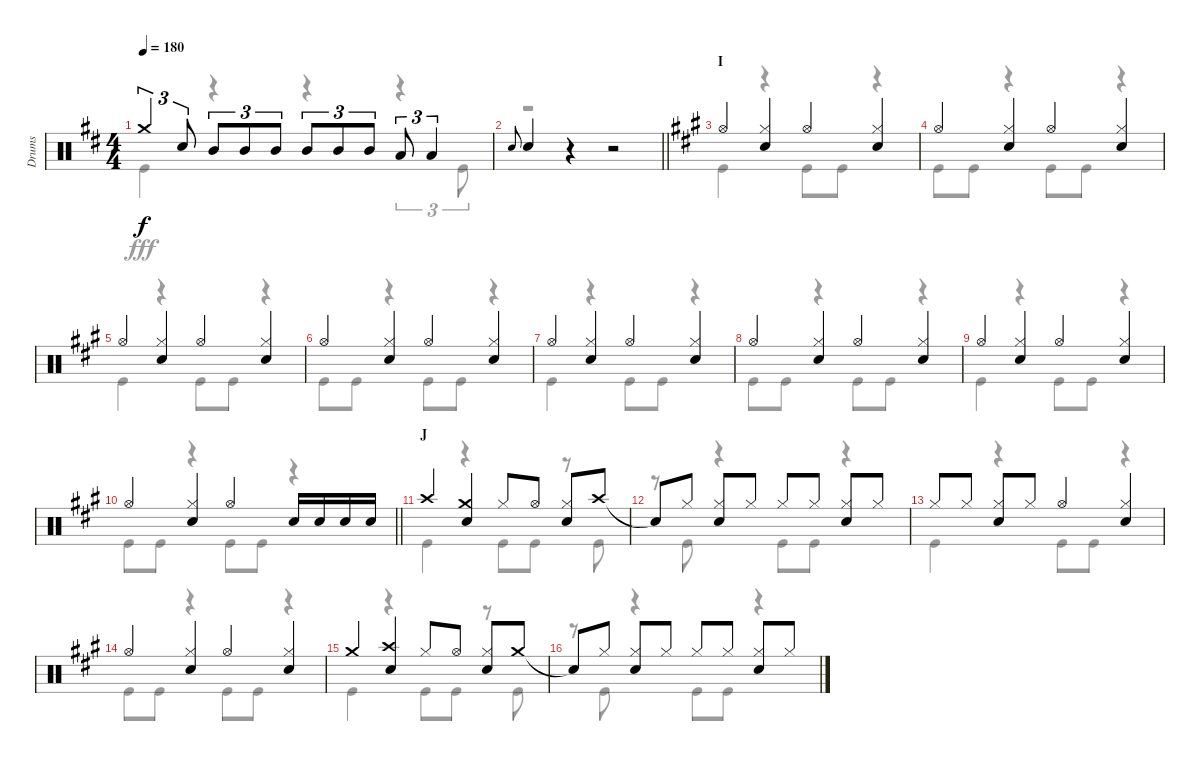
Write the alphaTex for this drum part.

\track ("Drums" "Drums") {instrument percussion}
\staff {score}
\articulation defaults
\voice
\ts (4 4)
\tempo 180
\clef neutral
\ks d "Crash medium (hit)".4{tu (3 2) dy f} "Snare (hit) 2".8{tu (3 2)} "Mid Tom (hit)".8{tu (3 2)} "Mid Tom (hit)".8{tu (3 2)} "Mid Tom (hit)".8{tu (3 2)} "Mid Tom (hit)".8{tu (3 2)} "Mid Tom (hit)".8{tu (3 2)} "Mid Tom (hit)".8{tu (3 2)} "Low Tom (hit)".8{tu (3 2)} "Low Tom (hit)".4{tu (3 2)}
|
\barLineRight lightlight "Snare (hit) 2".8{gr onbeat} "Snare (hit) 2".4
r.4 r.2 |
\section ("" "I")
\ks a "Hi-Hat (open)".4
("Hi-Hat (closed)" "Snare (hit) 2").4 "Hi-Hat (open)".4 ("Hi-Hat (closed)" "Snare (hit) 2").4 |
"Hi-Hat (open)".4 ("Hi-Hat (closed)" "Snare (hit) 2").4 "Hi-Hat (open)".4 ("Hi-Hat (closed)" "Snare (hit) 2").4 |
"Hi-Hat (open)".4 ("Hi-Hat (closed)" "Snare (hit) 2").4 "Hi-Hat (open)".4 ("Hi-Hat (closed)" "Snare (hit) 2").4 |
"Hi-Hat (open)".4 ("Hi-Hat (closed)" "Snare (hit) 2").4 "Hi-Hat (open)".4 ("Hi-Hat (closed)" "Snare (hit) 2").4 |
"Hi-Hat (open)".4 ("Hi-Hat (closed)" "Snare (hit) 2").4 "Hi-Hat (open)".4 ("Hi-Hat (closed)" "Snare (hit) 2").4 |
"Hi-Hat (open)".4 ("Hi-Hat (closed)" "Snare (hit) 2").4 "Hi-Hat (open)".4 ("Hi-Hat (closed)" "Snare (hit) 2").4 |
"Hi-Hat (open)".4 ("Hi-Hat (closed)" "Snare (hit) 2").4 "Hi-Hat (open)".4 ("Hi-Hat (closed)" "Snare (hit) 2").4 |
\barLineRight lightlight "Hi-Hat (open)".4
("Hi-Hat (closed)" "Snare (hit) 2").4 "Hi-Hat (open)".4 "Snare (hit) 2".16 "Snare (hit) 2".16 "Snare (hit) 2".16 "Snare (hit) 2".16 |
\section ("" "J")
"Crash high (hit)".4 ("Crash medium (hit)" "Snare (hit) 2").4 "Hi-Hat (closed)".8 "Hi-Hat (open)".8 ("Hi-Hat (closed)" "Snare (hit) 2").8 "Crash high (hit)".8 |
"Snare (hit)"{t}.8 "Hi-Hat (closed)".8 ("Hi-Hat (closed)" "Snare (hit) 2").8 "Hi-Hat (closed)".8 "Hi-Hat (closed)".8 "Hi-Hat (closed)".8 ("Hi-Hat (closed)" "Snare (hit) 2").8 "Hi-Hat (closed)".8 |
"Hi-Hat (closed)".8 "Hi-Hat (closed)".8 ("Hi-Hat (closed)" "Snare (hit) 2").8 "Hi-Hat (closed)".8 "Hi-Hat (open)".4 ("Hi-Hat (closed)" "Snare (hit) 2").4 |
"Hi-Hat (open)".4 ("Hi-Hat (closed)" "Snare (hit) 2").4 "Hi-Hat (open)".4 ("Hi-Hat (closed)" "Snare (hit) 2").4 |
"Crash medium (hit)".4 ("Crash high (hit)" "Snare (hit) 2").4 "Hi-Hat (closed)".8 "Hi-Hat (open)".8 ("Hi-Hat (closed)" "Snare (hit) 2").8 "Crash medium (hit)".8 |
"Snare (hit)"{t}.8 "Hi-Hat (closed)".8 ("Hi-Hat (closed)" "Snare (hit) 2").8 "Hi-Hat (closed)".8 "Hi-Hat (closed)".8 "Hi-Hat (closed)".8 ("Hi-Hat (closed)" "Snare (hit) 2").8 "Hi-Hat (closed)".8
\voice
\clef neutral
\ottava regular
\simile none
\ks d "Kick (hit)".4{dy fff}
r.4 r.4 r.4{tu (3 2)} "Kick (hit)".8{tu (3 2)} |
\barLineRight lightlight
r.1 |
\ks a "Kick (hit)".4
r.4 "Kick (hit)".8 "Kick (hit)".8 r.4 |
"Kick (hit)".8 "Kick (hit)".8 r.4 "Kick (hit)".8 "Kick (hit)".8 r.4 |
"Kick (hit)".4 r.4 "Kick (hit)".8 "Kick (hit)".8 r.4 |
"Kick (hit)".8 "Kick (hit)".8 r.4 "Kick (hit)".8 "Kick (hit)".8 r.4 |
"Kick (hit)".4 r.4 "Kick (hit)".8 "Kick (hit)".8 r.4 |
"Kick (hit)".8 "Kick (hit)".8 r.4 "Kick (hit)".8 "Kick (hit)".8 r.4 |
"Kick (hit)".4 r.4 "Kick (hit)".8 "Kick (hit)".8 r.4 |
\barLineRight lightlight "Kick (hit)".8 "Kick (hit)".8
r.4 "Kick (hit)".8 "Kick (hit)".8 r.4 |
"Kick (hit)".4 r.4 "Kick (hit)".8 "Kick (hit)".8 r.8 "Kick (hit)".8 |
r.8 "Kick (hit)".8 r.4 "Kick (hit)".8 "Kick (hit)".8 r.4 |
"Kick (hit)".4 r.4 "Kick (hit)".8 "Kick (hit)".8 r.4 |
"Kick (hit)".8 "Kick (hit)".8 r.4 "Kick (hit)".8 "Kick (hit)".8 r.4 |
"Kick (hit)".4 r.4 "Kick (hit)".8 "Kick (hit)".8 r.8 "Kick (hit)".8 |
r.8 "Kick (hit)".8 r.4 "Kick (hit)".8 "Kick (hit)".8 r.4
